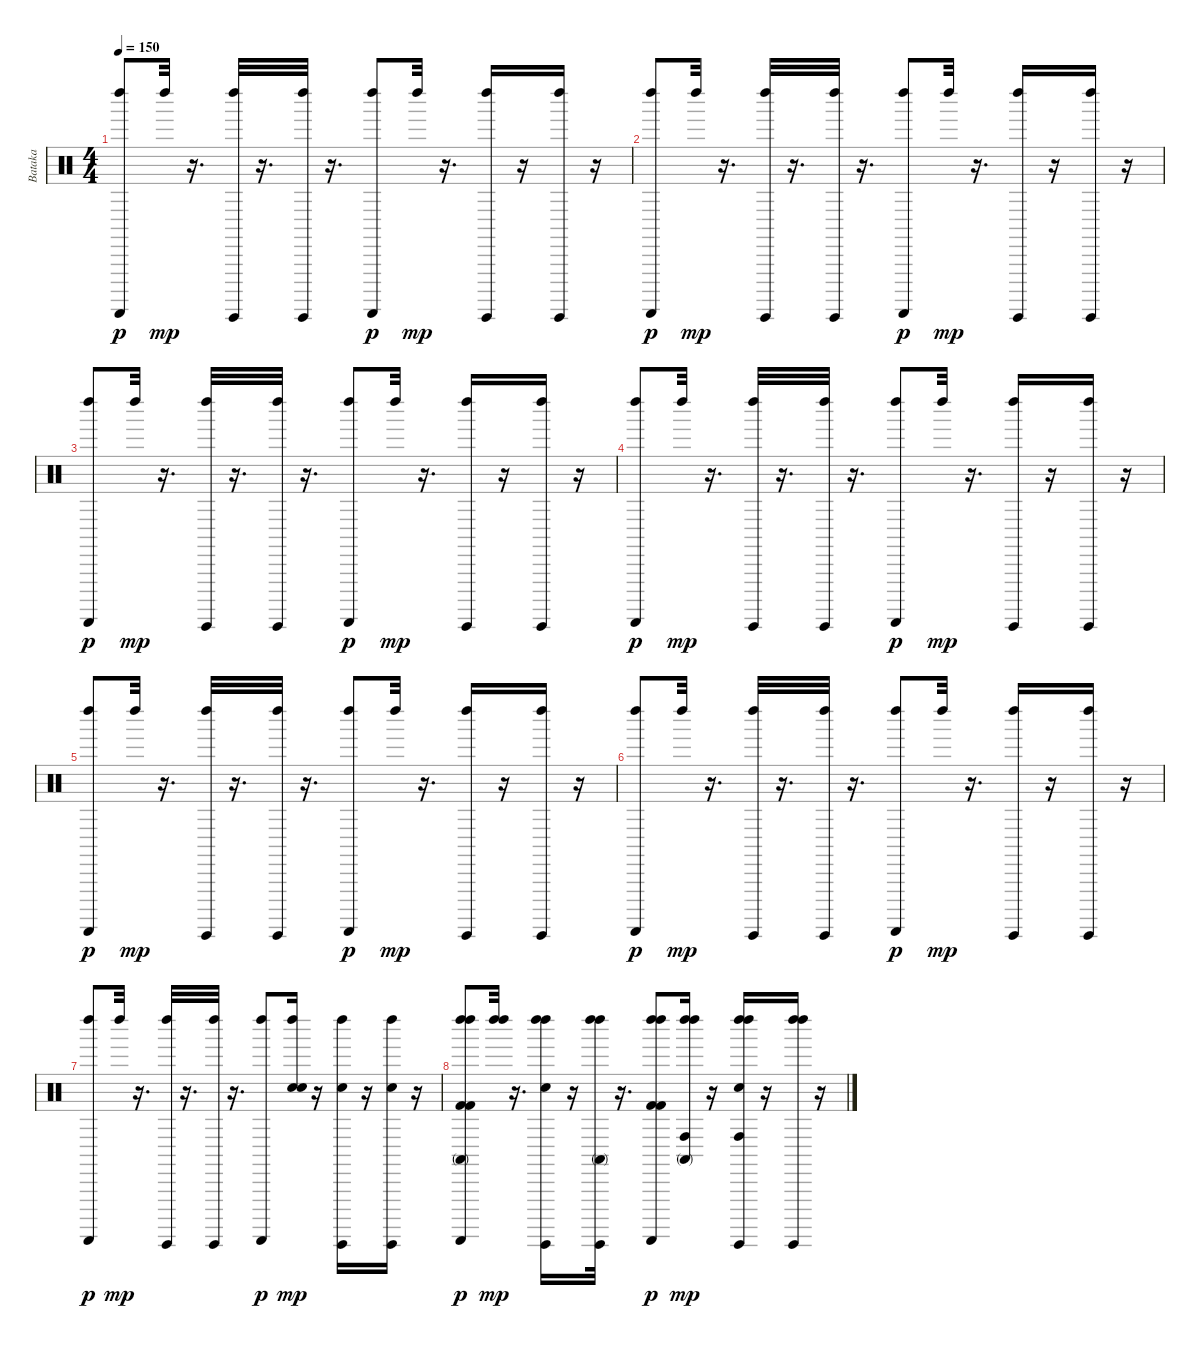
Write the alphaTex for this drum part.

\track ("Bataka" "Bataka") {instrument percussion}
\staff {score}
\articulation defaults
\ts (4 4)
\tempo 150
\clef neutral
\ks c
("Guiro (scrap-return)" "Left Maraca (hit)").8{dy p} "Left Maraca (hit)".32{dy mp} r.16{d} ("Guiro (hit)" "Left Maraca (hit)").32 r.16{d} ("Guiro (hit)" "Left Maraca (hit)").32 r.16{d} ("Guiro (scrap-return)" "Left Maraca (hit)").8{dy p} "Left Maraca (hit)".32{dy mp} r.16{d} ("Guiro (hit)" "Left Maraca (hit)").16 r.16 ("Guiro (hit)" "Left Maraca (hit)").16 r.16 |
("Guiro (scrap-return)" "Left Maraca (hit)").8{dy p} "Left Maraca (hit)".32{dy mp} r.16{d} ("Guiro (hit)" "Left Maraca (hit)").32 r.16{d} ("Guiro (hit)" "Left Maraca (hit)").32 r.16{d} ("Guiro (scrap-return)" "Left Maraca (hit)").8{dy p} "Left Maraca (hit)".32{dy mp} r.16{d} ("Guiro (hit)" "Left Maraca (hit)").16 r.16 ("Guiro (hit)" "Left Maraca (hit)").16 r.16 |
("Guiro (scrap-return)" "Left Maraca (hit)").8{dy p} "Left Maraca (hit)".32{dy mp} r.16{d} ("Guiro (hit)" "Left Maraca (hit)").32 r.16{d} ("Guiro (hit)" "Left Maraca (hit)").32 r.16{d} ("Guiro (scrap-return)" "Left Maraca (hit)").8{dy p} "Left Maraca (hit)".32{dy mp} r.16{d} ("Guiro (hit)" "Left Maraca (hit)").16 r.16 ("Guiro (hit)" "Left Maraca (hit)").16 r.16 |
("Guiro (scrap-return)" "Left Maraca (hit)").8{dy p} "Left Maraca (hit)".32{dy mp} r.16{d} ("Guiro (hit)" "Left Maraca (hit)").32 r.16{d} ("Guiro (hit)" "Left Maraca (hit)").32 r.16{d} ("Guiro (scrap-return)" "Left Maraca (hit)").8{dy p} "Left Maraca (hit)".32{dy mp} r.16{d} ("Guiro (hit)" "Left Maraca (hit)").16 r.16 ("Guiro (hit)" "Left Maraca (hit)").16 r.16 |
("Guiro (scrap-return)" "Left Maraca (hit)").8{dy p} "Left Maraca (hit)".32{dy mp} r.16{d} ("Guiro (hit)" "Left Maraca (hit)").32 r.16{d} ("Guiro (hit)" "Left Maraca (hit)").32 r.16{d} ("Guiro (scrap-return)" "Left Maraca (hit)").8{dy p} "Left Maraca (hit)".32{dy mp} r.16{d} ("Guiro (hit)" "Left Maraca (hit)").16 r.16 ("Guiro (hit)" "Left Maraca (hit)").16 r.16 |
("Guiro (scrap-return)" "Left Maraca (hit)").8{dy p} "Left Maraca (hit)".32{dy mp} r.16{d} ("Guiro (hit)" "Left Maraca (hit)").32 r.16{d} ("Guiro (hit)" "Left Maraca (hit)").32 r.16{d} ("Guiro (scrap-return)" "Left Maraca (hit)").8{dy p} "Left Maraca (hit)".32{dy mp} r.16{d} ("Guiro (hit)" "Left Maraca (hit)").16 r.16 ("Guiro (hit)" "Left Maraca (hit)").16 r.16 |
("Guiro (scrap-return)" "Left Maraca (hit)").8{dy p} "Left Maraca (hit)".32{dy mp} r.16{d} ("Guiro (hit)" "Left Maraca (hit)").32 r.16{d} ("Guiro (hit)" "Left Maraca (hit)").32 r.16{d} ("Guiro (scrap-return)" "Left Maraca (hit)").8{dy p} ("Electric Snare (hit)" "Electric Snare (hit)" "Left Maraca (hit)").16{dy mp} r.16 ("Electric Snare (hit)" "Guiro (hit)" "Left Maraca (hit)").16 r.16 ("Electric Snare (hit)" "Guiro (hit)" "Left Maraca (hit)").16 r.16 |
("Kick (hit) 2" "Kick (hit) 2" "Left Maraca (hit)" "Conga high (mute)" "Guiro (scrap-return)" "Left Maraca (hit)").8{dy p} ("Left Maraca (hit)" "Left Maraca (hit)").32{dy mp} r.16{d} ("Electric Snare (hit)" "Left Maraca (hit)" "Guiro (hit)" "Left Maraca (hit)").16 r.16 ("Left Maraca (hit)" "Conga high (mute)" "Guiro (hit)" "Left Maraca (hit)").32 r.16{d} ("Kick (hit) 2" "Kick (hit) 2" "Left Maraca (hit)" "Guiro (scrap-return)" "Left Maraca (hit)").8{dy p} ("Left Maraca (hit)" "Conga high (hit)" "Conga high (mute)" "Left Maraca (hit)").16{dy mp} r.16 ("Electric Snare (hit)" "Left Maraca (hit)" "Conga high (hit)" "Guiro (hit)" "Left Maraca (hit)").16 r.16 ("Left Maraca (hit)" "Guiro (hit)" "Left Maraca (hit)").16 r.16
